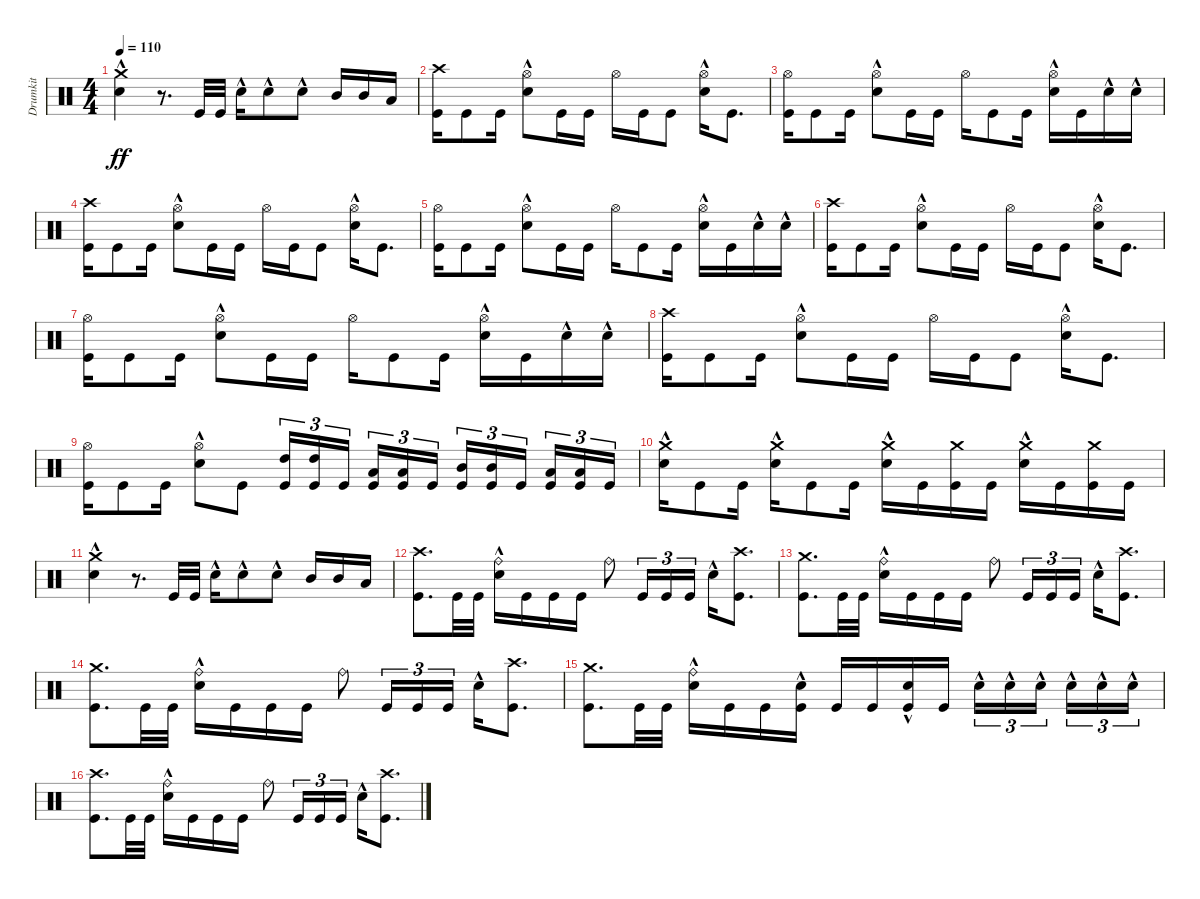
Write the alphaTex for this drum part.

\track ("Drumkit" "Drumkit") {instrument percussion}
\staff {score}
\articulation defaults
\ts (4 4)
\tempo 110
\clef neutral
\ks c
("Snare (hit) 2"{hac} "Crash medium (hit)").4{dy ff} r.8{d} "Kick (hit)".32 "Kick (hit)".32 "Snare (hit) 2"{hac}.16 "Snare (hit) 2"{hac}.8 "Snare (hit) 2"{hac}.8 "Mid Tom (hit)".16 "Mid Tom (hit)".16 "Low Tom (hit)".16 |
("Kick (hit)" "Crash high (hit)").16 "Kick (hit)".8 "Kick (hit)".16 ("Snare (hit) 2"{hac} "Hi-Hat (open)").8 "Kick (hit)".16 "Kick (hit)".16 "Hi-Hat (open)".16 "Kick (hit)".16 "Kick (hit)".8 ("Snare (hit) 2"{hac} "Hi-Hat (open)").16 "Kick (hit)".8{d} |
("Kick (hit)" "Hi-Hat (open)").16 "Kick (hit)".8 "Kick (hit)".16 ("Snare (hit) 2"{hac} "Hi-Hat (open)").8 "Kick (hit)".16 "Kick (hit)".16 "Hi-Hat (open)".16 "Kick (hit)".8 "Kick (hit)".16 ("Snare (hit) 2"{hac} "Hi-Hat (open)").16 "Kick (hit)".16 "Snare (hit) 2"{hac}.16 "Snare (hit) 2"{hac}.16 |
("Kick (hit)" "Crash high (hit)").16 "Kick (hit)".8 "Kick (hit)".16 ("Snare (hit) 2"{hac} "Hi-Hat (open)").8 "Kick (hit)".16 "Kick (hit)".16 "Hi-Hat (open)".16 "Kick (hit)".16 "Kick (hit)".8 ("Snare (hit) 2"{hac} "Hi-Hat (open)").16 "Kick (hit)".8{d} |
("Kick (hit)" "Hi-Hat (open)").16 "Kick (hit)".8 "Kick (hit)".16 ("Snare (hit) 2"{hac} "Hi-Hat (open)").8 "Kick (hit)".16 "Kick (hit)".16 "Hi-Hat (open)".16 "Kick (hit)".8 "Kick (hit)".16 ("Snare (hit) 2"{hac} "Hi-Hat (open)").16 "Kick (hit)".16 "Snare (hit) 2"{hac}.16 "Snare (hit) 2"{hac}.16 |
("Kick (hit)" "Crash high (hit)").16 "Kick (hit)".8 "Kick (hit)".16 ("Snare (hit) 2"{hac} "Hi-Hat (open)").8 "Kick (hit)".16 "Kick (hit)".16 "Hi-Hat (open)".16 "Kick (hit)".16 "Kick (hit)".8 ("Snare (hit) 2"{hac} "Hi-Hat (open)").16 "Kick (hit)".8{d} |
("Kick (hit)" "Hi-Hat (open)").16 "Kick (hit)".8 "Kick (hit)".16 ("Snare (hit) 2"{hac} "Hi-Hat (open)").8 "Kick (hit)".16 "Kick (hit)".16 "Hi-Hat (open)".16 "Kick (hit)".8 "Kick (hit)".16 ("Snare (hit) 2"{hac} "Hi-Hat (open)").16 "Kick (hit)".16 "Snare (hit) 2"{hac}.16 "Snare (hit) 2"{hac}.16 |
("Kick (hit)" "Crash high (hit)").16 "Kick (hit)".8 "Kick (hit)".16 ("Snare (hit) 2"{hac} "Hi-Hat (open)").8 "Kick (hit)".16 "Kick (hit)".16 "Hi-Hat (open)".16 "Kick (hit)".16 "Kick (hit)".8 ("Snare (hit) 2"{hac} "Hi-Hat (open)").16 "Kick (hit)".8{d} |
("Kick (hit)" "Hi-Hat (open)").16 "Kick (hit)".8 "Kick (hit)".16 ("Snare (hit) 2"{hac} "Hi-Hat (open)").8 "Kick (hit)".8 ("Kick (hit)" "High Tom (hit)").16{tu (3 2)} ("Kick (hit)" "High Tom (hit)").16{tu (3 2)} "Kick (hit)".16{tu (3 2) beam splitsecondary} ("Kick (hit)" "Low Tom (hit)").16{tu (3 2)} ("Kick (hit)" "Low Tom (hit)").16{tu (3 2)} "Kick (hit)".16{tu (3 2)} ("Kick (hit)" "Mid Tom (hit)").16{tu (3 2)} ("Kick (hit)" "Mid Tom (hit)").16{tu (3 2)} "Kick (hit)".16{tu (3 2) beam splitsecondary} ("Kick (hit)" "Low Tom (hit)").16{tu (3 2)} ("Kick (hit)" "Low Tom (hit)").16{tu (3 2)} "Kick (hit)".16{tu (3 2)} |
("Snare (hit) 2"{hac} "Crash medium (hit)").16 "Kick (hit)".8 "Kick (hit)".16 ("Snare (hit) 2"{hac} "Crash medium (hit)").16 "Kick (hit)".8 "Kick (hit)".16 ("Snare (hit) 2"{hac} "Crash medium (hit)").16 "Kick (hit)".16 ("Kick (hit)" "Crash medium (hit)").16 "Kick (hit)".16 ("Snare (hit) 2"{hac} "Crash medium (hit)").16 "Kick (hit)".16 ("Kick (hit)" "Crash medium (hit)").16 "Kick (hit)".16 |
("Snare (hit) 2"{hac} "Crash medium (hit)").4 r.8{d} "Kick (hit)".32 "Kick (hit)".32 "Snare (hit) 2"{hac}.16 "Snare (hit) 2"{hac}.8 "Snare (hit) 2"{hac}.8 "Mid Tom (hit)".16 "Mid Tom (hit)".16 "Low Tom (hit)".16 |
("Kick (hit)" "Crash high (hit)").8{d} "Kick (hit)".32 "Kick (hit)".32 ("Snare (hit) 2"{hac} "Ride (bell)").16 "Kick (hit)".16 "Kick (hit)".16 "Kick (hit)".16 "Ride (bell)".8 "Kick (hit)".16{tu (3 2)} "Kick (hit)".16{tu (3 2)} "Kick (hit)".16{tu (3 2)} "Snare (hit) 2"{hac}.16 ("Kick (hit)" "Crash high (hit)").8{d} |
("Kick (hit)" "Crash medium (hit)").8{d} "Kick (hit)".32 "Kick (hit)".32 ("Snare (hit) 2"{hac} "Ride (bell)").16 "Kick (hit)".16 "Kick (hit)".16 "Kick (hit)".16 "Ride (bell)".8 "Kick (hit)".16{tu (3 2)} "Kick (hit)".16{tu (3 2)} "Kick (hit)".16{tu (3 2)} "Snare (hit) 2"{hac}.16 ("Kick (hit)" "Crash high (hit)").8{d} |
("Kick (hit)" "Crash medium (hit)").8{d} "Kick (hit)".32 "Kick (hit)".32 ("Snare (hit) 2"{hac} "Ride (bell)").16 "Kick (hit)".16 "Kick (hit)".16 "Kick (hit)".16 "Ride (bell)".8 "Kick (hit)".16{tu (3 2)} "Kick (hit)".16{tu (3 2)} "Kick (hit)".16{tu (3 2)} "Snare (hit) 2"{hac}.16 ("Kick (hit)" "Crash high (hit)").8{d} |
("Kick (hit)" "Crash medium (hit)").8{d} "Kick (hit)".32 "Kick (hit)".32 ("Snare (hit) 2"{hac} "Ride (bell)").16 "Kick (hit)".16 "Kick (hit)".16 ("Kick (hit)" "Snare (hit) 2"{hac}).16 "Kick (hit)".16 "Kick (hit)".16 ("Kick (hit)" "Snare (hit) 2"{hac}).16 "Kick (hit)".16 "Snare (hit) 2"{hac}.16{tu (3 2)} "Snare (hit) 2"{hac}.16{tu (3 2)} "Snare (hit) 2"{hac}.16{tu (3 2) beam splitsecondary} "Snare (hit) 2"{hac}.16{tu (3 2)} "Snare (hit) 2"{hac}.16{tu (3 2)} "Snare (hit) 2"{hac}.16{tu (3 2)} |
("Kick (hit)" "Crash high (hit)").8{d} "Kick (hit)".32 "Kick (hit)".32 ("Snare (hit) 2"{hac} "Ride (bell)").16 "Kick (hit)".16 "Kick (hit)".16 "Kick (hit)".16 "Ride (bell)".8 "Kick (hit)".16{tu (3 2)} "Kick (hit)".16{tu (3 2)} "Kick (hit)".16{tu (3 2)} "Snare (hit) 2"{hac}.16 ("Kick (hit)" "Crash high (hit)").8{d}
